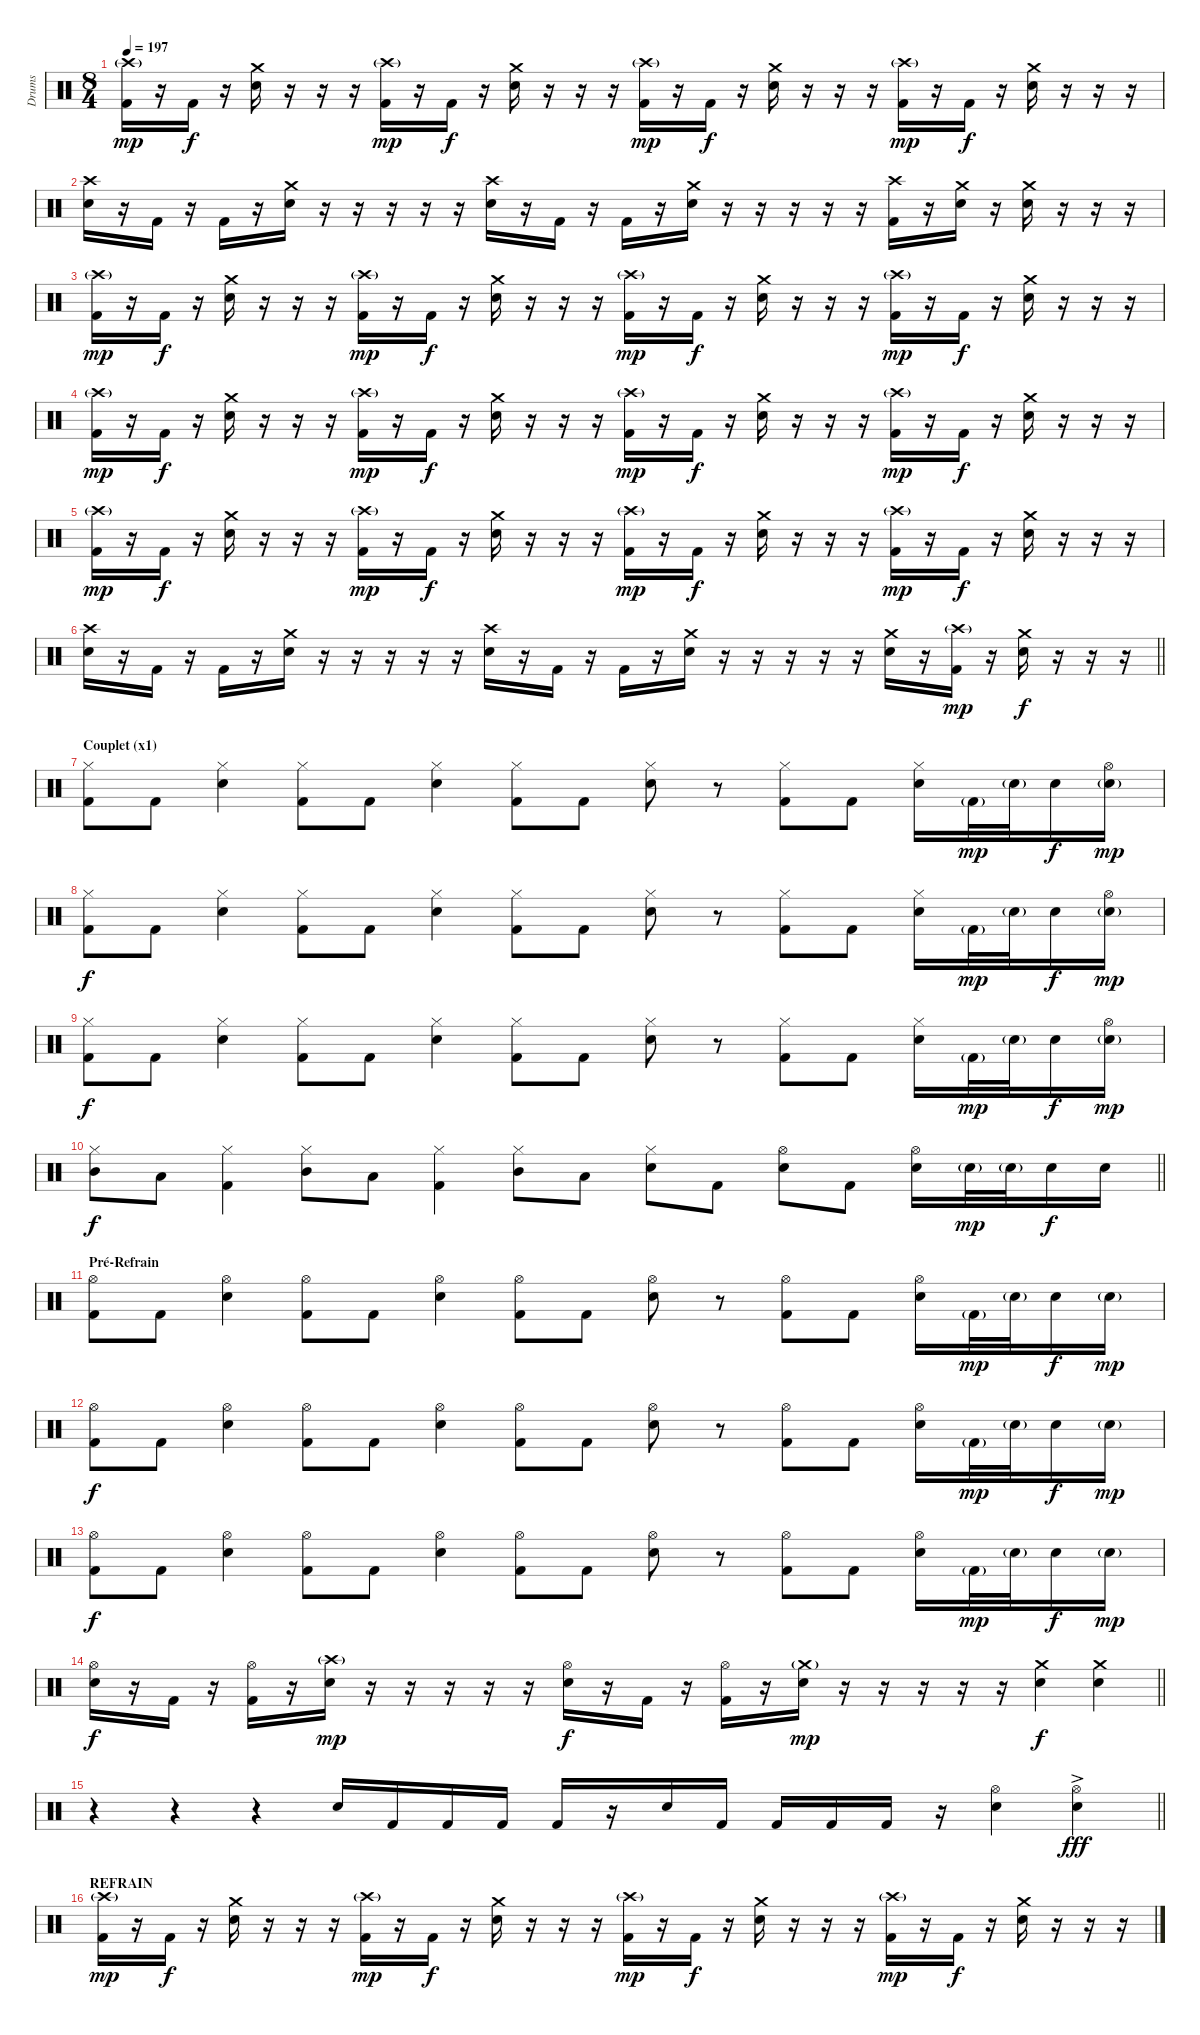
\track ("Drums" "Drums") {instrument percussion}
\staff {score}
\articulation defaults
\ts (8 4)
\tempo 197
\clef neutral
\ks c
("Crash high (hit)"{g} "Kick (hit) 2").16{dy mp} r.16 "Kick (hit) 2".16{dy f} r.16 ("Crash medium (hit)" "Electric Snare (hit)").16 r.16 r.16 r.16 ("Crash high (hit)"{g} "Kick (hit) 2").16{dy mp} r.16 "Kick (hit) 2".16{dy f} r.16 ("Crash medium (hit)" "Electric Snare (hit)").16 r.16 r.16 r.16 ("Crash high (hit)"{g} "Kick (hit) 2").16{dy mp} r.16 "Kick (hit) 2".16{dy f} r.16 ("Crash medium (hit)" "Electric Snare (hit)").16 r.16 r.16 r.16 ("Crash high (hit)"{g} "Kick (hit) 2").16{dy mp} r.16 "Kick (hit) 2".16{dy f} r.16 ("Crash medium (hit)" "Electric Snare (hit)").16 r.16 r.16 r.16 |
("Crash high (hit)" "Electric Snare (hit)").16 r.16 "Kick (hit) 2".16 r.16 "Kick (hit) 2".16 r.16 ("Crash medium (hit)" "Electric Snare (hit)").16 r.16 r.16 r.16 r.16 r.16 ("Crash high (hit)" "Electric Snare (hit)").16 r.16 "Kick (hit) 2".16 r.16 "Kick (hit) 2".16 r.16 ("Crash medium (hit)" "Electric Snare (hit)").16 r.16 r.16 r.16 r.16 r.16 ("Crash high (hit)" "Kick (hit) 2").16 r.16 ("Crash medium (hit)" "Electric Snare (hit)").16 r.16 ("Crash medium (hit)" "Electric Snare (hit)").16 r.16 r.16 r.16 |
("Crash high (hit)"{g} "Kick (hit) 2").16{dy mp} r.16 "Kick (hit) 2".16{dy f} r.16 ("Crash medium (hit)" "Electric Snare (hit)").16 r.16 r.16 r.16 ("Crash high (hit)"{g} "Kick (hit) 2").16{dy mp} r.16 "Kick (hit) 2".16{dy f} r.16 ("Crash medium (hit)" "Electric Snare (hit)").16 r.16 r.16 r.16 ("Crash high (hit)"{g} "Kick (hit) 2").16{dy mp} r.16 "Kick (hit) 2".16{dy f} r.16 ("Crash medium (hit)" "Electric Snare (hit)").16 r.16 r.16 r.16 ("Crash high (hit)"{g} "Kick (hit) 2").16{dy mp} r.16 "Kick (hit) 2".16{dy f} r.16 ("Crash medium (hit)" "Electric Snare (hit)").16 r.16 r.16 r.16 |
("Crash high (hit)"{g} "Kick (hit) 2").16{dy mp} r.16 "Kick (hit) 2".16{dy f} r.16 ("Crash medium (hit)" "Electric Snare (hit)").16 r.16 r.16 r.16 ("Crash high (hit)"{g} "Kick (hit) 2").16{dy mp} r.16 "Kick (hit) 2".16{dy f} r.16 ("Crash medium (hit)" "Electric Snare (hit)").16 r.16 r.16 r.16 ("Crash high (hit)"{g} "Kick (hit) 2").16{dy mp} r.16 "Kick (hit) 2".16{dy f} r.16 ("Crash medium (hit)" "Electric Snare (hit)").16 r.16 r.16 r.16 ("Crash high (hit)"{g} "Kick (hit) 2").16{dy mp} r.16 "Kick (hit) 2".16{dy f} r.16 ("Crash medium (hit)" "Electric Snare (hit)").16 r.16 r.16 r.16 |
("Crash high (hit)"{g} "Kick (hit) 2").16{dy mp} r.16 "Kick (hit) 2".16{dy f} r.16 ("Crash medium (hit)" "Electric Snare (hit)").16 r.16 r.16 r.16 ("Crash high (hit)"{g} "Kick (hit) 2").16{dy mp} r.16 "Kick (hit) 2".16{dy f} r.16 ("Crash medium (hit)" "Electric Snare (hit)").16 r.16 r.16 r.16 ("Crash high (hit)"{g} "Kick (hit) 2").16{dy mp} r.16 "Kick (hit) 2".16{dy f} r.16 ("Crash medium (hit)" "Electric Snare (hit)").16 r.16 r.16 r.16 ("Crash high (hit)"{g} "Kick (hit) 2").16{dy mp} r.16 "Kick (hit) 2".16{dy f} r.16 ("Crash medium (hit)" "Electric Snare (hit)").16 r.16 r.16 r.16 |
\barLineRight lightlight
("Crash high (hit)" "Electric Snare (hit)").16 r.16 "Kick (hit) 2".16 r.16 "Kick (hit) 2".16 r.16 ("Crash medium (hit)" "Electric Snare (hit)").16 r.16 r.16 r.16 r.16 r.16 ("Crash high (hit)" "Electric Snare (hit)").16 r.16 "Kick (hit) 2".16 r.16 "Kick (hit) 2".16 r.16 ("Crash medium (hit)" "Electric Snare (hit)").16 r.16 r.16 r.16 r.16 r.16 ("Crash medium (hit)" "Electric Snare (hit)").16 r.16 ("Crash high (hit)"{g} "Kick (hit) 2").16{dy mp} r.16 ("Crash medium (hit)" "Electric Snare (hit)").16{dy f} r.16 r.16 r.16 |
\section ("" "Couplet (x1)")
("Hi-Hat (closed)" "Kick (hit) 2").8 "Kick (hit) 2".8 ("Hi-Hat (closed)" "Electric Snare (hit)").4 ("Hi-Hat (closed)" "Kick (hit) 2").8 "Kick (hit) 2".8 ("Hi-Hat (closed)" "Electric Snare (hit)").4 ("Hi-Hat (closed)" "Kick (hit) 2").8 "Kick (hit) 2".8 ("Hi-Hat (closed)" "Electric Snare (hit)").8 r.8 ("Hi-Hat (closed)" "Kick (hit) 2").8 "Kick (hit) 2".8 ("Hi-Hat (closed)" "Electric Snare (hit)").16 "Kick (hit) 2"{g}.32{dy mp} "Electric Snare (hit)"{g}.32 "Electric Snare (hit)".16{dy f} ("Hi-Hat (open)" "Electric Snare (hit)"{g}).16{dy mp} |
("Hi-Hat (closed)" "Kick (hit) 2").8{dy f} "Kick (hit) 2".8 ("Hi-Hat (closed)" "Electric Snare (hit)").4 ("Hi-Hat (closed)" "Kick (hit) 2").8 "Kick (hit) 2".8 ("Hi-Hat (closed)" "Electric Snare (hit)").4 ("Hi-Hat (closed)" "Kick (hit) 2").8 "Kick (hit) 2".8 ("Hi-Hat (closed)" "Electric Snare (hit)").8 r.8 ("Hi-Hat (closed)" "Kick (hit) 2").8 "Kick (hit) 2".8 ("Hi-Hat (closed)" "Electric Snare (hit)").16 "Kick (hit) 2"{g}.32{dy mp} "Electric Snare (hit)"{g}.32 "Electric Snare (hit)".16{dy f} ("Hi-Hat (open)" "Electric Snare (hit)"{g}).16{dy mp} |
("Hi-Hat (closed)" "Kick (hit) 2").8{dy f} "Kick (hit) 2".8 ("Hi-Hat (closed)" "Electric Snare (hit)").4 ("Hi-Hat (closed)" "Kick (hit) 2").8 "Kick (hit) 2".8 ("Hi-Hat (closed)" "Electric Snare (hit)").4 ("Hi-Hat (closed)" "Kick (hit) 2").8 "Kick (hit) 2".8 ("Hi-Hat (closed)" "Electric Snare (hit)").8 r.8 ("Hi-Hat (closed)" "Kick (hit) 2").8 "Kick (hit) 2".8 ("Hi-Hat (closed)" "Electric Snare (hit)").16 "Kick (hit) 2"{g}.32{dy mp} "Electric Snare (hit)"{g}.32 "Electric Snare (hit)".16{dy f} ("Hi-Hat (open)" "Electric Snare (hit)"{g}).16{dy mp} |
\barLineRight lightlight
("Hi-Hat (closed)" "Mid Tom (hit)").8{dy f} "Low Floor Tom (hit)".8 ("Hi-Hat (closed)" "Kick (hit) 2").4 ("Hi-Hat (closed)" "Mid Tom (hit)").8 "Low Floor Tom (hit)".8 ("Hi-Hat (closed)" "Kick (hit) 2").4 ("Hi-Hat (closed)" "Mid Tom (hit)").8 "Low Floor Tom (hit)".8 ("Hi-Hat (closed)" "Electric Snare (hit)").8 "Kick (hit) 2".8 ("Hi-Hat (open)" "Electric Snare (hit)").8 "Kick (hit) 2".8 ("Hi-Hat (open)" "Electric Snare (hit)").16 "Electric Snare (hit)"{g}.32{dy mp} "Electric Snare (hit)"{g}.32 "Electric Snare (hit)".16{dy f} "Electric Snare (hit)".16 |
\section ("" "Pré-Refrain")
("Hi-Hat (open)" "Kick (hit) 2").8 "Kick (hit) 2".8 ("Hi-Hat (open)" "Electric Snare (hit)").4 ("Hi-Hat (open)" "Kick (hit) 2").8 "Kick (hit) 2".8 ("Hi-Hat (open)" "Electric Snare (hit)").4 ("Hi-Hat (open)" "Kick (hit) 2").8 "Kick (hit) 2".8 ("Hi-Hat (open)" "Electric Snare (hit)").8 r.8 ("Hi-Hat (open)" "Kick (hit) 2").8 "Kick (hit) 2".8 ("Hi-Hat (open)" "Electric Snare (hit)").16 "Kick (hit) 2"{g}.32{dy mp} "Electric Snare (hit)"{g}.32 "Electric Snare (hit)".16{dy f} "Electric Snare (hit)"{g}.16{dy mp} |
("Hi-Hat (open)" "Kick (hit) 2").8{dy f} "Kick (hit) 2".8 ("Hi-Hat (open)" "Electric Snare (hit)").4 ("Hi-Hat (open)" "Kick (hit) 2").8 "Kick (hit) 2".8 ("Hi-Hat (open)" "Electric Snare (hit)").4 ("Hi-Hat (open)" "Kick (hit) 2").8 "Kick (hit) 2".8 ("Hi-Hat (open)" "Electric Snare (hit)").8 r.8 ("Hi-Hat (open)" "Kick (hit) 2").8 "Kick (hit) 2".8 ("Hi-Hat (open)" "Electric Snare (hit)").16 "Kick (hit) 2"{g}.32{dy mp} "Electric Snare (hit)"{g}.32 "Electric Snare (hit)".16{dy f} "Electric Snare (hit)"{g}.16{dy mp} |
("Hi-Hat (open)" "Kick (hit) 2").8{dy f} "Kick (hit) 2".8 ("Hi-Hat (open)" "Electric Snare (hit)").4 ("Hi-Hat (open)" "Kick (hit) 2").8 "Kick (hit) 2".8 ("Hi-Hat (open)" "Electric Snare (hit)").4 ("Hi-Hat (open)" "Kick (hit) 2").8 "Kick (hit) 2".8 ("Hi-Hat (open)" "Electric Snare (hit)").8 r.8 ("Hi-Hat (open)" "Kick (hit) 2").8 "Kick (hit) 2".8 ("Hi-Hat (open)" "Electric Snare (hit)").16 "Kick (hit) 2"{g}.32{dy mp} "Electric Snare (hit)"{g}.32 "Electric Snare (hit)".16{dy f} "Electric Snare (hit)"{g}.16{dy mp} |
\barLineRight lightlight
("Hi-Hat (open)" "Electric Snare (hit)").16{dy f} r.16 "Kick (hit) 2".16 r.16 ("Hi-Hat (open)" "Kick (hit) 2").16 r.16 ("Crash high (hit)"{g} "Electric Snare (hit)").16{dy mp} r.16 r.16 r.16 r.16 r.16 ("Hi-Hat (open)" "Electric Snare (hit)").16{dy f} r.16 "Kick (hit) 2".16 r.16 ("Hi-Hat (open)" "Kick (hit) 2").16 r.16 ("Crash medium (hit)"{g} "Electric Snare (hit)").16{dy mp} r.16 r.16 r.16 r.16 r.16 ("Crash medium (hit)" "Electric Snare (hit)").4{dy f} ("Crash medium (hit)" "Electric Snare (hit)").4 |
\barLineRight lightlight
r.4 r.4 r.4 "Electric Snare (hit)".16 "Kick (hit) 2".16 "Kick (hit) 2".16 "Kick (hit) 2".16 "Kick (hit) 2".16 r.16 "Electric Snare (hit)".16 "Kick (hit) 2".16 "Kick (hit) 2".16 "Kick (hit) 2".16 "Kick (hit) 2".16 r.16 ("Hi-Hat (open)" "Electric Snare (hit)").4 ("Hi-Hat (open)"{ac} "Electric Snare (hit)"{ac}).4{dy fff} |
\section ("" "REFRAIN")
("Crash high (hit)"{g} "Kick (hit) 2").16{dy mp} r.16 "Kick (hit) 2".16{dy f} r.16 ("Crash medium (hit)" "Electric Snare (hit)").16 r.16 r.16 r.16 ("Crash high (hit)"{g} "Kick (hit) 2").16{dy mp} r.16 "Kick (hit) 2".16{dy f} r.16 ("Crash medium (hit)" "Electric Snare (hit)").16 r.16 r.16 r.16 ("Crash high (hit)"{g} "Kick (hit) 2").16{dy mp} r.16 "Kick (hit) 2".16{dy f} r.16 ("Crash medium (hit)" "Electric Snare (hit)").16 r.16 r.16 r.16 ("Crash high (hit)"{g} "Kick (hit) 2").16{dy mp} r.16 "Kick (hit) 2".16{dy f} r.16 ("Crash medium (hit)" "Electric Snare (hit)").16 r.16 r.16 r.16
